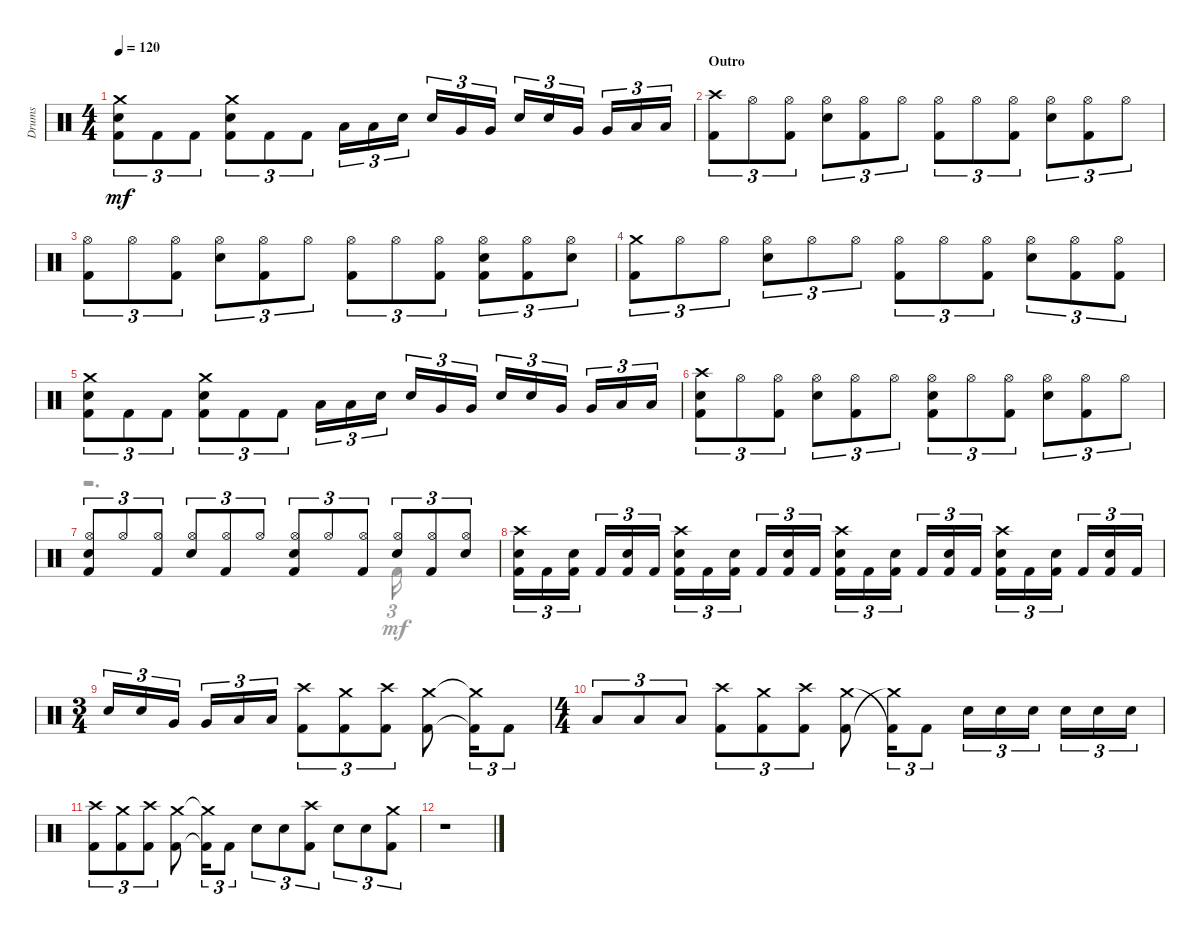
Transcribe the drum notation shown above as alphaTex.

\track ("Drums" "Drums") {instrument percussion}
\staff {score}
\articulation defaults
\voice
\ts (4 4)
\tempo 120
\clef neutral
\ks aminor
("Crash medium (hit)" "Kick (hit) 2" "Snare (hit) 2").8{tu (3 2) dy mf} "Kick (hit) 2".8{tu (3 2)} "Kick (hit) 2".8{tu (3 2)} ("Crash medium (hit)" "Kick (hit) 2" "Snare (hit) 2").8{tu (3 2)} "Kick (hit) 2".8{tu (3 2)} "Kick (hit) 2".8{tu (3 2)} "Low Tom (hit)".16{tu (3 2)} "Low Tom (hit)".16{tu (3 2)} "Snare (hit) 2".16{tu (3 2)} "Snare (hit) 2".16{tu (3 2)} "Very Low Tom (hit)".16{tu (3 2)} "Very Low Tom (hit)".16{tu (3 2)} "Snare (hit) 2".16{tu (3 2)} "Snare (hit) 2".16{tu (3 2)} "Very Low Tom (hit)".16{tu (3 2)} "Very Low Tom (hit)".16{tu (3 2)} "Low Floor Tom (hit)".16{tu (3 2)} "Low Floor Tom (hit)".16{tu (3 2)} |
\section ("" "Outro")
("Kick (hit) 2" "Crash high (hit)").8{tu (3 2)} "Hi-Hat (open)".8{tu (3 2)} ("Kick (hit) 2" "Hi-Hat (open)").8{tu (3 2)} ("Snare (hit) 2" "Hi-Hat (open)").8{tu (3 2)} ("Kick (hit) 2" "Hi-Hat (open)").8{tu (3 2)} "Hi-Hat (open)".8{tu (3 2)} ("Kick (hit) 2" "Hi-Hat (open)").8{tu (3 2)} "Hi-Hat (open)".8{tu (3 2)} ("Kick (hit) 2" "Hi-Hat (open)").8{tu (3 2)} ("Hi-Hat (open)" "Snare (hit) 2").8{tu (3 2)} ("Kick (hit) 2" "Hi-Hat (open)").8{tu (3 2)} "Hi-Hat (open)".8{tu (3 2)} |
("Hi-Hat (open)" "Kick (hit) 2").8{tu (3 2)} "Hi-Hat (open)".8{tu (3 2)} ("Kick (hit) 2" "Hi-Hat (open)").8{tu (3 2)} ("Hi-Hat (open)" "Snare (hit) 2").8{tu (3 2)} ("Kick (hit) 2" "Hi-Hat (open)").8{tu (3 2)} "Hi-Hat (open)".8{tu (3 2)} ("Kick (hit) 2" "Hi-Hat (open)").8{tu (3 2)} "Hi-Hat (open)".8{tu (3 2)} ("Kick (hit) 2" "Hi-Hat (open)").8{tu (3 2)} ("Hi-Hat (open)" "Kick (hit) 2" "Snare (hit) 2").8{tu (3 2)} ("Hi-Hat (open)" "Kick (hit) 2").8{tu (3 2)} ("Snare (hit) 2" "Hi-Hat (open)").8{tu (3 2)} |
("Kick (hit) 2" "Crash medium (hit)").8{tu (3 2)} "Hi-Hat (open)".8{tu (3 2)} "Hi-Hat (open)".8{tu (3 2)} ("Hi-Hat (open)" "Snare (hit) 2").8{tu (3 2)} "Hi-Hat (open)".8{tu (3 2)} "Hi-Hat (open)".8{tu (3 2)} ("Hi-Hat (open)" "Kick (hit) 2").8{tu (3 2)} "Hi-Hat (open)".8{tu (3 2)} ("Hi-Hat (open)" "Kick (hit) 2").8{tu (3 2)} ("Hi-Hat (open)" "Snare (hit) 2").8{tu (3 2)} ("Kick (hit) 2" "Hi-Hat (open)").8{tu (3 2)} ("Kick (hit) 2" "Hi-Hat (open)").8{tu (3 2)} |
("Kick (hit) 2" "Snare (hit) 2" "Crash medium (hit)").8{tu (3 2)} "Kick (hit) 2".8{tu (3 2)} "Kick (hit) 2".8{tu (3 2)} ("Crash medium (hit)" "Snare (hit) 2" "Kick (hit) 2").8{tu (3 2)} "Kick (hit) 2".8{tu (3 2)} "Kick (hit) 2".8{tu (3 2)} "Low Tom (hit)".16{tu (3 2)} "Low Tom (hit)".16{tu (3 2)} "Snare (hit) 2".16{tu (3 2)} "Snare (hit) 2".16{tu (3 2)} "Very Low Tom (hit)".16{tu (3 2)} "Very Low Tom (hit)".16{tu (3 2)} "Snare (hit) 2".16{tu (3 2)} "Snare (hit) 2".16{tu (3 2)} "Very Low Tom (hit)".16{tu (3 2)} "Very Low Tom (hit)".16{tu (3 2)} "Low Floor Tom (hit)".16{tu (3 2)} "Low Floor Tom (hit)".16{tu (3 2)} |
("Snare (hit) 2" "Kick (hit) 2" "Crash high (hit)").8{tu (3 2)} "Hi-Hat (open)".8{tu (3 2)} ("Kick (hit) 2" "Hi-Hat (open)").8{tu (3 2)} ("Hi-Hat (open)" "Snare (hit) 2").8{tu (3 2)} ("Hi-Hat (open)" "Kick (hit) 2").8{tu (3 2)} "Hi-Hat (open)".8{tu (3 2)} ("Hi-Hat (open)" "Snare (hit) 2" "Kick (hit) 2").8{tu (3 2)} "Hi-Hat (open)".8{tu (3 2)} ("Kick (hit) 2" "Hi-Hat (open)").8{tu (3 2)} ("Hi-Hat (open)" "Snare (hit) 2").8{tu (3 2)} ("Kick (hit) 2" "Hi-Hat (open)").8{tu (3 2)} "Hi-Hat (open)".8{tu (3 2)} |
("Hi-Hat (open)" "Kick (hit) 2" "Snare (hit) 2").8{tu (3 2)} "Hi-Hat (open)".8{tu (3 2)} ("Hi-Hat (open)" "Kick (hit) 2").8{tu (3 2)} ("Snare (hit) 2" "Hi-Hat (open)").8{tu (3 2)} ("Kick (hit) 2" "Hi-Hat (open)").8{tu (3 2)} "Hi-Hat (open)".8{tu (3 2)} ("Kick (hit) 2" "Snare (hit) 2" "Hi-Hat (open)").8{tu (3 2)} "Hi-Hat (open)".8{tu (3 2)} ("Kick (hit) 2" "Hi-Hat (open)").8{tu (3 2)} ("Hi-Hat (open)" "Snare (hit) 2").8{tu (3 2)} ("Hi-Hat (open)" "Kick (hit) 2").8{tu (3 2)} ("Snare (hit) 2" "Hi-Hat (open)").8{tu (3 2)} |
("Snare (hit) 2" "Crash high (hit)" "Kick (hit) 2").16{tu (3 2)} "Kick (hit) 2".16{tu (3 2)} ("Kick (hit) 2" "Snare (hit) 2").16{tu (3 2)} "Kick (hit) 2".16{tu (3 2)} ("Snare (hit) 2" "Kick (hit) 2").16{tu (3 2)} "Kick (hit) 2".16{tu (3 2)} ("Crash high (hit)" "Snare (hit) 2" "Kick (hit) 2").16{tu (3 2)} "Kick (hit) 2".16{tu (3 2)} ("Kick (hit) 2" "Snare (hit) 2").16{tu (3 2)} "Kick (hit) 2".16{tu (3 2)} ("Kick (hit) 2" "Snare (hit) 2").16{tu (3 2)} "Kick (hit) 2".16{tu (3 2)} ("Crash high (hit)" "Snare (hit) 2" "Kick (hit) 2").16{tu (3 2)} "Kick (hit) 2".16{tu (3 2)} ("Kick (hit) 2" "Snare (hit) 2").16{tu (3 2)} "Kick (hit) 2".16{tu (3 2)} ("Kick (hit) 2" "Snare (hit) 2").16{tu (3 2)} "Kick (hit) 2".16{tu (3 2)} ("Crash high (hit)" "Kick (hit) 2" "Snare (hit) 2").16{tu (3 2)} "Kick (hit) 2".16{tu (3 2)} ("Snare (hit) 2" "Kick (hit) 2").16{tu (3 2)} "Kick (hit) 2".16{tu (3 2)} ("Kick (hit) 2" "Snare (hit) 2").16{tu (3 2)} "Kick (hit) 2".16{tu (3 2)} |
\ts (3 4)
"Snare (hit) 2".16{tu (3 2)} "Snare (hit) 2".16{tu (3 2)} "Very Low Tom (hit)".16{tu (3 2)} "Very Low Tom (hit)".16{tu (3 2)} "Low Floor Tom (hit)".16{tu (3 2)} "Low Floor Tom (hit)".16{tu (3 2)} ("Crash high (hit)" "Kick (hit) 2").8{tu (3 2)} ("Crash medium (hit)" "Kick (hit) 2").8{tu (3 2)} ("Crash high (hit)" "Kick (hit) 2").8{tu (3 2)} ("Crash medium (hit)" "Kick (hit) 2").8 ("Crash medium (hit)"{t} "Kick (hit) 2"{t}).16{tu (3 2)} "Kick (hit) 2".8{tu (3 2)} |
\ts (4 4)
"Low Floor Tom (hit)".8{tu (3 2)} "Low Floor Tom (hit)".8{tu (3 2)} "Low Floor Tom (hit)".8{tu (3 2)} ("Crash high (hit)" "Kick (hit) 2").8{tu (3 2)} ("Kick (hit) 2" "Crash medium (hit)").8{tu (3 2)} ("Crash high (hit)" "Kick (hit) 2").8{tu (3 2)} ("Crash medium (hit)" "Kick (hit) 2").8 ("Kick (hit) 2"{t} "Crash medium (hit)"{t}).16{tu (3 2)} "Kick (hit) 2".8{tu (3 2)} "Snare (hit) 2".16{tu (3 2)} "Snare (hit) 2".16{tu (3 2)} "Snare (hit) 2".16{tu (3 2)} "Snare (hit) 2".16{tu (3 2)} "Snare (hit) 2".16{tu (3 2)} "Snare (hit) 2".16{tu (3 2)} |
("Crash high (hit)" "Kick (hit) 2").8{tu (3 2)} ("Kick (hit) 2" "Crash medium (hit)").8{tu (3 2)} ("Crash high (hit)" "Kick (hit) 2").8{tu (3 2)} ("Kick (hit) 2" "Crash medium (hit)").8 ("Kick (hit) 2"{t} "Crash medium (hit)"{t}).16{tu (3 2)} "Kick (hit) 2".8{tu (3 2)} "Snare (hit) 2".8{tu (3 2)} "Snare (hit) 2".8{tu (3 2)} ("Crash high (hit)" "Kick (hit) 2").8{tu (3 2)} "Snare (hit) 2".8{tu (3 2)} "Snare (hit) 2".8{tu (3 2)} ("Crash medium (hit)" "Kick (hit) 2").8{tu (3 2)} |
r.1
\voice
\clef neutral
\ottava regular
\simile none
\ks aminor
|
|
|
|
|
|
r.2{d} "Kick (hit) 2".16{tu (3 2)} |
|
|
|
|
